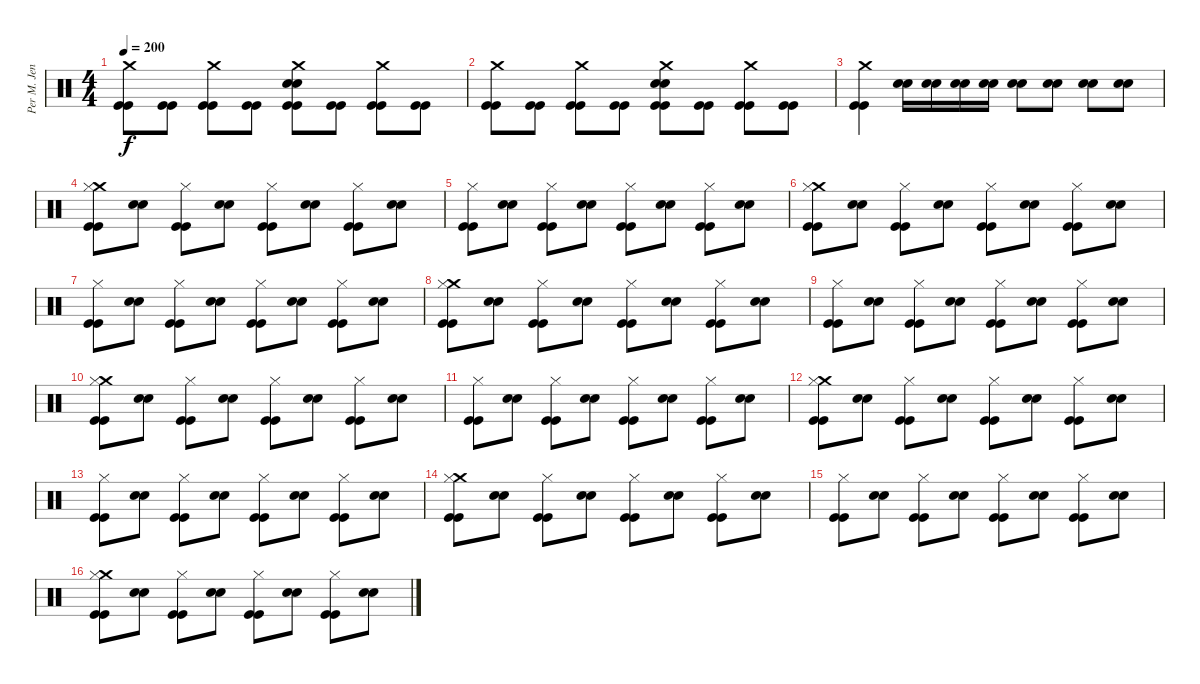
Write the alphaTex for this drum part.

\track ("Per M. Jensen" "Per M. Jen") {instrument percussion}
\staff {score}
\articulation defaults
\ts (4 4)
\tempo 200
\clef neutral
\ks c
("Crash medium (hit)" "Kick (hit)" "Kick (hit)").8{dy f} ("Kick (hit)" "Kick (hit)").8 ("Crash medium (hit)" "Kick (hit)" "Kick (hit)").8 ("Kick (hit)" "Kick (hit)").8 ("Crash medium (hit)" "Snare (hit) 2" "Snare (hit) 2" "Kick (hit)" "Kick (hit)").8 ("Kick (hit)" "Kick (hit)").8 ("Crash medium (hit)" "Kick (hit)" "Kick (hit)").8 ("Kick (hit)" "Kick (hit)").8 |
("Crash medium (hit)" "Kick (hit)" "Kick (hit)").8 ("Kick (hit)" "Kick (hit)").8 ("Crash medium (hit)" "Kick (hit)" "Kick (hit)").8 ("Kick (hit)" "Kick (hit)").8 ("Crash medium (hit)" "Snare (hit) 2" "Snare (hit) 2" "Kick (hit)" "Kick (hit)").8 ("Kick (hit)" "Kick (hit)").8 ("Crash medium (hit)" "Kick (hit)" "Kick (hit)").8 ("Kick (hit)" "Kick (hit)").8 |
("Crash medium (hit)" "Kick (hit)" "Kick (hit)").4 ("Snare (hit) 2" "Snare (hit) 2").16 ("Snare (hit) 2" "Snare (hit) 2").16 ("Snare (hit) 2" "Snare (hit) 2").16 ("Snare (hit) 2" "Snare (hit) 2").16 ("Snare (hit) 2" "Snare (hit) 2").8 ("Snare (hit) 2" "Snare (hit) 2").8 ("Snare (hit) 2" "Snare (hit) 2").8 ("Snare (hit) 2" "Snare (hit) 2").8 |
("Crash medium (hit)" "Hi-Hat (closed)" "Kick (hit)" "Kick (hit)").8 ("Snare (hit) 2" "Snare (hit) 2").8 ("Hi-Hat (closed)" "Kick (hit)" "Kick (hit)").8 ("Snare (hit) 2" "Snare (hit) 2").8 ("Hi-Hat (closed)" "Kick (hit)" "Kick (hit)").8 ("Snare (hit) 2" "Snare (hit) 2").8 ("Hi-Hat (closed)" "Kick (hit)" "Kick (hit)").8 ("Snare (hit) 2" "Snare (hit) 2").8 |
("Hi-Hat (closed)" "Kick (hit)" "Kick (hit)").8 ("Snare (hit) 2" "Snare (hit) 2").8 ("Hi-Hat (closed)" "Kick (hit)" "Kick (hit)").8 ("Snare (hit) 2" "Snare (hit) 2").8 ("Hi-Hat (closed)" "Kick (hit)" "Kick (hit)").8 ("Snare (hit) 2" "Snare (hit) 2").8 ("Hi-Hat (closed)" "Kick (hit)" "Kick (hit)").8 ("Snare (hit) 2" "Snare (hit) 2").8 |
("Crash medium (hit)" "Hi-Hat (closed)" "Kick (hit)" "Kick (hit)").8 ("Snare (hit) 2" "Snare (hit) 2").8 ("Hi-Hat (closed)" "Kick (hit)" "Kick (hit)").8 ("Snare (hit) 2" "Snare (hit) 2").8 ("Hi-Hat (closed)" "Kick (hit)" "Kick (hit)").8 ("Snare (hit) 2" "Snare (hit) 2").8 ("Hi-Hat (closed)" "Kick (hit)" "Kick (hit)").8 ("Snare (hit) 2" "Snare (hit) 2").8 |
("Hi-Hat (closed)" "Kick (hit)" "Kick (hit)").8 ("Snare (hit) 2" "Snare (hit) 2").8 ("Hi-Hat (closed)" "Kick (hit)" "Kick (hit)").8 ("Snare (hit) 2" "Snare (hit) 2").8 ("Hi-Hat (closed)" "Kick (hit)" "Kick (hit)").8 ("Snare (hit) 2" "Snare (hit) 2").8 ("Hi-Hat (closed)" "Kick (hit)" "Kick (hit)").8 ("Snare (hit) 2" "Snare (hit) 2").8 |
("Crash medium (hit)" "Hi-Hat (closed)" "Kick (hit)" "Kick (hit)").8 ("Snare (hit) 2" "Snare (hit) 2").8 ("Hi-Hat (closed)" "Kick (hit)" "Kick (hit)").8 ("Snare (hit) 2" "Snare (hit) 2").8 ("Hi-Hat (closed)" "Kick (hit)" "Kick (hit)").8 ("Snare (hit) 2" "Snare (hit) 2").8 ("Hi-Hat (closed)" "Kick (hit)" "Kick (hit)").8 ("Snare (hit) 2" "Snare (hit) 2").8 |
("Hi-Hat (closed)" "Kick (hit)" "Kick (hit)").8 ("Snare (hit) 2" "Snare (hit) 2").8 ("Hi-Hat (closed)" "Kick (hit)" "Kick (hit)").8 ("Snare (hit) 2" "Snare (hit) 2").8 ("Hi-Hat (closed)" "Kick (hit)" "Kick (hit)").8 ("Snare (hit) 2" "Snare (hit) 2").8 ("Hi-Hat (closed)" "Kick (hit)" "Kick (hit)").8 ("Snare (hit) 2" "Snare (hit) 2").8 |
("Crash medium (hit)" "Hi-Hat (closed)" "Kick (hit)" "Kick (hit)").8 ("Snare (hit) 2" "Snare (hit) 2").8 ("Hi-Hat (closed)" "Kick (hit)" "Kick (hit)").8 ("Snare (hit) 2" "Snare (hit) 2").8 ("Hi-Hat (closed)" "Kick (hit)" "Kick (hit)").8 ("Snare (hit) 2" "Snare (hit) 2").8 ("Hi-Hat (closed)" "Kick (hit)" "Kick (hit)").8 ("Snare (hit) 2" "Snare (hit) 2").8 |
("Hi-Hat (closed)" "Kick (hit)" "Kick (hit)").8 ("Snare (hit) 2" "Snare (hit) 2").8 ("Hi-Hat (closed)" "Kick (hit)" "Kick (hit)").8 ("Snare (hit) 2" "Snare (hit) 2").8 ("Hi-Hat (closed)" "Kick (hit)" "Kick (hit)").8 ("Snare (hit) 2" "Snare (hit) 2").8 ("Hi-Hat (closed)" "Kick (hit)" "Kick (hit)").8 ("Snare (hit) 2" "Snare (hit) 2").8 |
("Crash medium (hit)" "Hi-Hat (closed)" "Kick (hit)" "Kick (hit)").8 ("Snare (hit) 2" "Snare (hit) 2").8 ("Hi-Hat (closed)" "Kick (hit)" "Kick (hit)").8 ("Snare (hit) 2" "Snare (hit) 2").8 ("Hi-Hat (closed)" "Kick (hit)" "Kick (hit)").8 ("Snare (hit) 2" "Snare (hit) 2").8 ("Hi-Hat (closed)" "Kick (hit)" "Kick (hit)").8 ("Snare (hit) 2" "Snare (hit) 2").8 |
("Hi-Hat (closed)" "Kick (hit)" "Kick (hit)").8 ("Snare (hit) 2" "Snare (hit) 2").8 ("Hi-Hat (closed)" "Kick (hit)" "Kick (hit)").8 ("Snare (hit) 2" "Snare (hit) 2").8 ("Hi-Hat (closed)" "Kick (hit)" "Kick (hit)").8 ("Snare (hit) 2" "Snare (hit) 2").8 ("Hi-Hat (closed)" "Kick (hit)" "Kick (hit)").8 ("Snare (hit) 2" "Snare (hit) 2").8 |
("Crash medium (hit)" "Hi-Hat (closed)" "Kick (hit)" "Kick (hit)").8 ("Snare (hit) 2" "Snare (hit) 2").8 ("Hi-Hat (closed)" "Kick (hit)" "Kick (hit)").8 ("Snare (hit) 2" "Snare (hit) 2").8 ("Hi-Hat (closed)" "Kick (hit)" "Kick (hit)").8 ("Snare (hit) 2" "Snare (hit) 2").8 ("Hi-Hat (closed)" "Kick (hit)" "Kick (hit)").8 ("Snare (hit) 2" "Snare (hit) 2").8 |
("Hi-Hat (closed)" "Kick (hit)" "Kick (hit)").8 ("Snare (hit) 2" "Snare (hit) 2").8 ("Hi-Hat (closed)" "Kick (hit)" "Kick (hit)").8 ("Snare (hit) 2" "Snare (hit) 2").8 ("Hi-Hat (closed)" "Kick (hit)" "Kick (hit)").8 ("Snare (hit) 2" "Snare (hit) 2").8 ("Hi-Hat (closed)" "Kick (hit)" "Kick (hit)").8 ("Snare (hit) 2" "Snare (hit) 2").8 |
("Crash medium (hit)" "Hi-Hat (closed)" "Kick (hit)" "Kick (hit)").8 ("Snare (hit) 2" "Snare (hit) 2").8 ("Hi-Hat (closed)" "Kick (hit)" "Kick (hit)").8 ("Snare (hit) 2" "Snare (hit) 2").8 ("Hi-Hat (closed)" "Kick (hit)" "Kick (hit)").8 ("Snare (hit) 2" "Snare (hit) 2").8 ("Hi-Hat (closed)" "Kick (hit)" "Kick (hit)").8 ("Snare (hit) 2" "Snare (hit) 2").8
